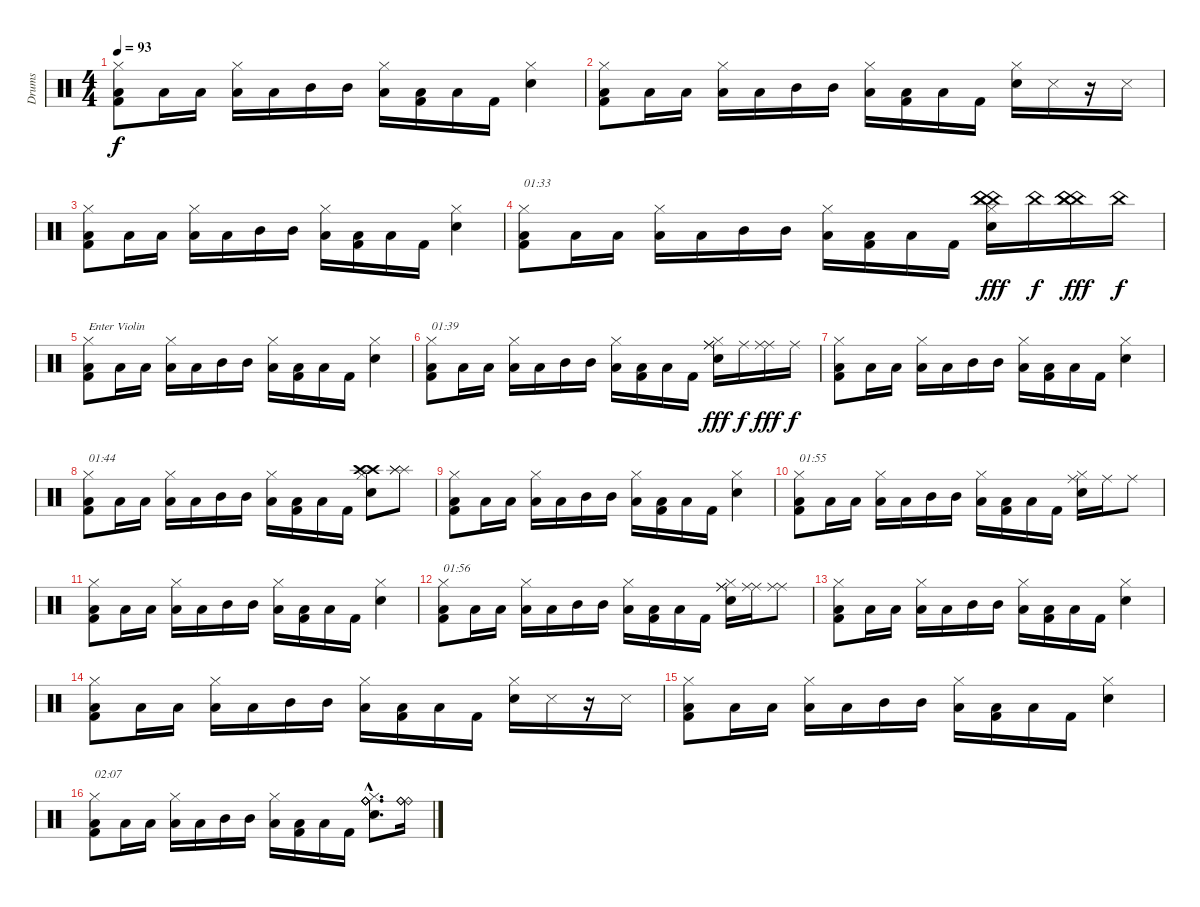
\track ("Drums" "Drums") {instrument percussion}
\staff {score}
\articulation defaults
\ts (4 4)
\tempo 93
\clef neutral
\ks c
("Hi-Hat (closed)" "Low Floor Tom (hit)" "Kick (hit) 2").8{dy f} "Low Floor Tom (hit)".16 "Low Tom (hit)".16 ("Hi-Hat (closed)" "Low Tom (hit)").16 "Low Floor Tom (hit)".16 "Mid Tom (hit)".16 "Mid Tom (hit)".16 ("Hi-Hat (closed)" "Low Floor Tom (hit)").16 ("Low Tom (hit)" "Kick (hit) 2").16 "Low Floor Tom (hit)".16 "Kick (hit) 2".16 ("Hi-Hat (closed)" "Snare (hit) 2").4 |
("Hi-Hat (closed)" "Low Floor Tom (hit)" "Kick (hit) 2").8 "Low Floor Tom (hit)".16 "Low Tom (hit)".16 ("Hi-Hat (closed)" "Low Tom (hit)").16 "Low Floor Tom (hit)".16 "Mid Tom (hit)".16 "Mid Tom (hit)".16 ("Hi-Hat (closed)" "Low Floor Tom (hit)").16 ("Low Tom (hit)" "Kick (hit) 2").16 "Low Floor Tom (hit)".16 "Kick (hit) 2".16 ("Hi-Hat (closed)" "Snare (hit) 2").16 "Snare (side stick) 3".16 r.16 "Snare (side stick) 3".16 |
("Hi-Hat (closed)" "Low Floor Tom (hit)" "Kick (hit) 2").8 "Low Floor Tom (hit)".16 "Low Tom (hit)".16 ("Hi-Hat (closed)" "Low Tom (hit)").16 "Low Floor Tom (hit)".16 "Mid Tom (hit)".16 "Mid Tom (hit)".16 ("Hi-Hat (closed)" "Low Floor Tom (hit)").16 ("Low Tom (hit)" "Kick (hit) 2").16 "Low Floor Tom (hit)".16 "Kick (hit) 2".16 ("Hi-Hat (closed)" "Snare (hit) 2").4 |
("Hi-Hat (closed)" "Low Floor Tom (hit)" "Kick (hit) 2").8{txt "01:33"} "Low Floor Tom (hit)".16 "Low Tom (hit)".16 ("Hi-Hat (closed)" "Low Tom (hit)").16 "Low Floor Tom (hit)".16 "Mid Tom (hit)".16 "Mid Tom (hit)".16 ("Hi-Hat (closed)" "Low Floor Tom (hit)").16 ("Low Tom (hit)" "Kick (hit) 2").16 "Low Floor Tom (hit)".16 "Kick (hit) 2".16 ("Hi-Hat (closed)" "China (hit)" "China (hit)" "China (hit)" "Snare (hit) 2").16{dy fff} "China (hit)".16{dy f} ("China (hit)" "China (hit)" "China (hit)").16{dy fff} "China (hit)".16{dy f} |
("Hi-Hat (closed)" "Low Floor Tom (hit)" "Kick (hit) 2").8{txt "Enter Violin"} "Low Floor Tom (hit)".16 "Low Tom (hit)".16 ("Hi-Hat (closed)" "Low Tom (hit)").16 "Low Floor Tom (hit)".16 "Mid Tom (hit)".16 "Mid Tom (hit)".16 ("Hi-Hat (closed)" "Low Floor Tom (hit)").16 ("Low Tom (hit)" "Kick (hit) 2").16 "Low Floor Tom (hit)".16 "Kick (hit) 2".16 ("Hi-Hat (closed)" "Snare (hit) 2").4 |
("Hi-Hat (closed)" "Low Floor Tom (hit)" "Kick (hit) 2").8{txt "01:39"} "Low Floor Tom (hit)".16 "Low Tom (hit)".16 ("Hi-Hat (closed)" "Low Tom (hit)").16 "Low Floor Tom (hit)".16 "Mid Tom (hit)".16 "Mid Tom (hit)".16 ("Hi-Hat (closed)" "Low Floor Tom (hit)").16 ("Low Tom (hit)" "Kick (hit) 2").16 "Low Floor Tom (hit)".16 "Kick (hit) 2".16 ("Hi-Hat (closed)" "Ride (middle)" "Ride (middle)" "Snare (hit) 2").16{dy fff} "Ride (middle)".16{dy f} ("Ride (middle)" "Ride (middle)").16{dy fff} "Ride (middle)".16{dy f} |
("Hi-Hat (closed)" "Low Floor Tom (hit)" "Kick (hit) 2").8 "Low Floor Tom (hit)".16 "Low Tom (hit)".16 ("Hi-Hat (closed)" "Low Tom (hit)").16 "Low Floor Tom (hit)".16 "Mid Tom (hit)".16 "Mid Tom (hit)".16 ("Hi-Hat (closed)" "Low Floor Tom (hit)").16 ("Low Tom (hit)" "Kick (hit) 2").16 "Low Floor Tom (hit)".16 "Kick (hit) 2".16 ("Hi-Hat (closed)" "Snare (hit) 2").4 |
("Hi-Hat (closed)" "Low Floor Tom (hit)" "Kick (hit) 2").8{txt "01:44"} "Low Floor Tom (hit)".16 "Low Tom (hit)".16 ("Hi-Hat (closed)" "Low Tom (hit)").16 "Low Floor Tom (hit)".16 "Mid Tom (hit)".16 "Mid Tom (hit)".16 ("Hi-Hat (closed)" "Low Floor Tom (hit)").16 ("Low Tom (hit)" "Kick (hit) 2").16 "Low Floor Tom (hit)".16 "Kick (hit) 2".16 ("Hi-Hat (closed)" "Crash high (hit)" "Crash high (hit)" "Snare (hit) 2").8 ("Splash (hit)" "Splash (hit)" "Splash (hit)").8 |
("Hi-Hat (closed)" "Low Floor Tom (hit)" "Kick (hit) 2").8 "Low Floor Tom (hit)".16 "Low Tom (hit)".16 ("Hi-Hat (closed)" "Low Tom (hit)").16 "Low Floor Tom (hit)".16 "Mid Tom (hit)".16 "Mid Tom (hit)".16 ("Hi-Hat (closed)" "Low Floor Tom (hit)").16 ("Low Tom (hit)" "Kick (hit) 2").16 "Low Floor Tom (hit)".16 "Kick (hit) 2".16 ("Hi-Hat (closed)" "Snare (hit) 2").4 |
("Hi-Hat (closed)" "Low Floor Tom (hit)" "Kick (hit) 2").8{txt "01:55"} "Low Floor Tom (hit)".16 "Low Tom (hit)".16 ("Hi-Hat (closed)" "Low Tom (hit)").16 "Low Floor Tom (hit)".16 "Mid Tom (hit)".16 "Mid Tom (hit)".16 ("Hi-Hat (closed)" "Low Floor Tom (hit)").16 ("Low Tom (hit)" "Kick (hit) 2").16 "Low Floor Tom (hit)".16 "Kick (hit) 2".16 ("Hi-Hat (closed)" "Ride (middle)" "Snare (hit) 2").16 "Ride (middle)".16 "Ride (middle)".8 |
("Hi-Hat (closed)" "Low Floor Tom (hit)" "Kick (hit) 2").8 "Low Floor Tom (hit)".16 "Low Tom (hit)".16 ("Hi-Hat (closed)" "Low Tom (hit)").16 "Low Floor Tom (hit)".16 "Mid Tom (hit)".16 "Mid Tom (hit)".16 ("Hi-Hat (closed)" "Low Floor Tom (hit)").16 ("Low Tom (hit)" "Kick (hit) 2").16 "Low Floor Tom (hit)".16 "Kick (hit) 2".16 ("Hi-Hat (closed)" "Snare (hit) 2").4 |
("Hi-Hat (closed)" "Low Floor Tom (hit)" "Kick (hit) 2").8{txt "01:56"} "Low Floor Tom (hit)".16 "Low Tom (hit)".16 ("Hi-Hat (closed)" "Low Tom (hit)").16 "Low Floor Tom (hit)".16 "Mid Tom (hit)".16 "Mid Tom (hit)".16 ("Hi-Hat (closed)" "Low Floor Tom (hit)").16 ("Low Tom (hit)" "Kick (hit) 2").16 "Low Floor Tom (hit)".16 "Kick (hit) 2".16 ("Hi-Hat (closed)" "Ride (middle)" "Ride (middle)" "Snare (hit) 2").16 ("Ride (middle)" "Ride (middle)").16 ("Ride (middle)" "Ride (middle)").8 |
("Hi-Hat (closed)" "Low Floor Tom (hit)" "Kick (hit) 2").8 "Low Floor Tom (hit)".16 "Low Tom (hit)".16 ("Hi-Hat (closed)" "Low Tom (hit)").16 "Low Floor Tom (hit)".16 "Mid Tom (hit)".16 "Mid Tom (hit)".16 ("Hi-Hat (closed)" "Low Floor Tom (hit)").16 ("Low Tom (hit)" "Kick (hit) 2").16 "Low Floor Tom (hit)".16 "Kick (hit) 2".16 ("Hi-Hat (closed)" "Snare (hit) 2").4 |
("Hi-Hat (closed)" "Low Floor Tom (hit)" "Kick (hit) 2").8 "Low Floor Tom (hit)".16 "Low Tom (hit)".16 ("Hi-Hat (closed)" "Low Tom (hit)").16 "Low Floor Tom (hit)".16 "Mid Tom (hit)".16 "Mid Tom (hit)".16 ("Hi-Hat (closed)" "Low Floor Tom (hit)").16 ("Low Tom (hit)" "Kick (hit) 2").16 "Low Floor Tom (hit)".16 "Kick (hit) 2".16 ("Hi-Hat (closed)" "Snare (hit) 2").16 "Snare (side stick) 3".16 r.16 "Snare (side stick) 3".16 |
("Hi-Hat (closed)" "Low Floor Tom (hit)" "Kick (hit) 2").8 "Low Floor Tom (hit)".16 "Low Tom (hit)".16 ("Hi-Hat (closed)" "Low Tom (hit)").16 "Low Floor Tom (hit)".16 "Mid Tom (hit)".16 "Mid Tom (hit)".16 ("Hi-Hat (closed)" "Low Floor Tom (hit)").16 ("Low Tom (hit)" "Kick (hit) 2").16 "Low Floor Tom (hit)".16 "Kick (hit) 2".16 ("Hi-Hat (closed)" "Snare (hit) 2").4 |
("Hi-Hat (closed)" "Low Floor Tom (hit)" "Kick (hit) 2").8{txt "02:07"} "Low Floor Tom (hit)".16 "Low Tom (hit)".16 ("Hi-Hat (closed)" "Low Tom (hit)").16 "Low Floor Tom (hit)".16 "Mid Tom (hit)".16 "Mid Tom (hit)".16 ("Hi-Hat (closed)" "Low Floor Tom (hit)").16 ("Low Tom (hit)" "Kick (hit) 2").16 "Low Floor Tom (hit)".16 "Kick (hit) 2".16 ("Hi-Hat (closed)"{hac} "Ride (bell)"{hac} "Ride (bell)"{hac} "Ride (bell)"{hac} "Snare (hit) 2"{hac}).8{d} ("Ride (bell)" "Ride (bell)" "Ride (bell)").16
